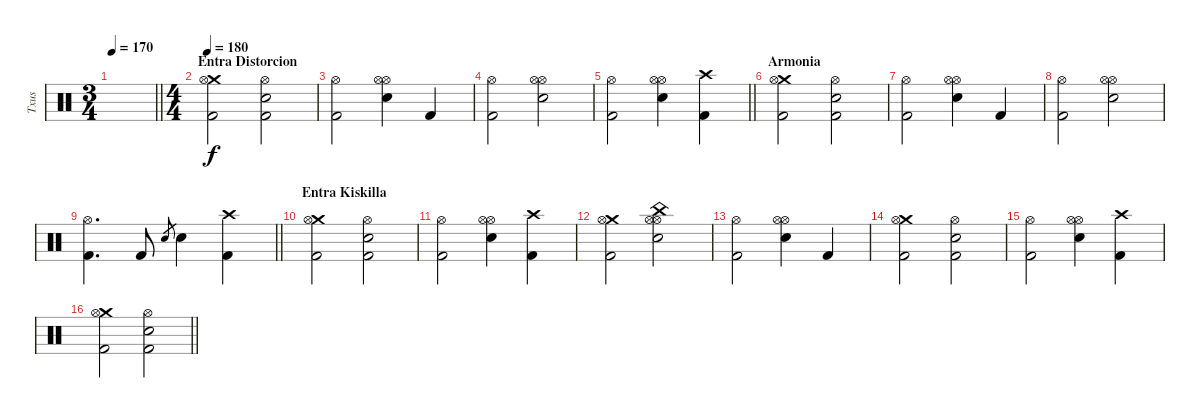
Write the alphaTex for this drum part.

\track ("Txus" "Txus") {instrument percussion}
\staff {score}
\articulation defaults
\ts (3 4)
\tempo 170
\clef neutral
\barLineRight lightlight
\ks c
|
\ts (4 4)
\section ("" "Entra Distorcion")
\tempo 180
("Crash medium (hit)" "Hi-Hat (open)" "Kick (hit) 2").2{dy f} ("Hi-Hat (open)" "Electric Snare (hit)" "Kick (hit) 2").2 |
("Hi-Hat (open)" "Kick (hit) 2").2 ("Hi-Hat (open)" "Hi-Hat (open)" "Electric Snare (hit)").4 "Kick (hit) 2".4 |
("Hi-Hat (open)" "Kick (hit) 2").2 ("Hi-Hat (open)" "Hi-Hat (open)" "Electric Snare (hit)").2 |
\barLineRight lightlight
("Hi-Hat (open)" "Kick (hit) 2").2 ("Hi-Hat (open)" "Hi-Hat (open)" "Electric Snare (hit)").4 ("Crash high (hit)" "Kick (hit) 2").4 |
\section ("" "Armonia")
("Crash medium (hit)" "Hi-Hat (open)" "Kick (hit) 2").2 ("Hi-Hat (open)" "Electric Snare (hit)" "Kick (hit) 2").2 |
("Hi-Hat (open)" "Kick (hit) 2").2 ("Hi-Hat (open)" "Hi-Hat (open)" "Electric Snare (hit)").4 "Kick (hit) 2".4 |
("Hi-Hat (open)" "Kick (hit) 2").2 ("Hi-Hat (open)" "Hi-Hat (open)" "Electric Snare (hit)").2 |
\barLineRight lightlight
("Hi-Hat (open)" "Kick (hit) 2").4{d} "Kick (hit) 2".8 "Electric Snare (hit)".8{gr} "Electric Snare (hit)".4 ("Crash high (hit)" "Kick (hit) 2").4 |
\section ("" "Entra Kiskilla")
("Crash medium (hit)" "Hi-Hat (open)" "Kick (hit) 2").2 ("Hi-Hat (open)" "Electric Snare (hit)" "Kick (hit) 2").2 |
("Hi-Hat (open)" "Kick (hit) 2").2 ("Hi-Hat (open)" "Hi-Hat (open)" "Electric Snare (hit)").4 ("Crash high (hit)" "Kick (hit) 2").4 |
("Crash medium (hit)" "Hi-Hat (open)" "Kick (hit) 2").2 ("China (hit)" "Hi-Hat (open)" "Hi-Hat (open)" "Electric Snare (hit)").2 |
("Hi-Hat (open)" "Kick (hit) 2").2 ("Hi-Hat (open)" "Hi-Hat (open)" "Electric Snare (hit)").4 "Kick (hit) 2".4 |
("Crash medium (hit)" "Hi-Hat (open)" "Kick (hit) 2").2 ("Hi-Hat (open)" "Electric Snare (hit)" "Kick (hit) 2").2 |
("Hi-Hat (open)" "Kick (hit) 2").2 ("Hi-Hat (open)" "Hi-Hat (open)" "Electric Snare (hit)").4 ("Crash high (hit)" "Kick (hit) 2").4 |
\barLineRight lightlight
("Crash medium (hit)" "Hi-Hat (open)" "Kick (hit) 2").2 ("Hi-Hat (open)" "Electric Snare (hit)" "Kick (hit) 2").2
